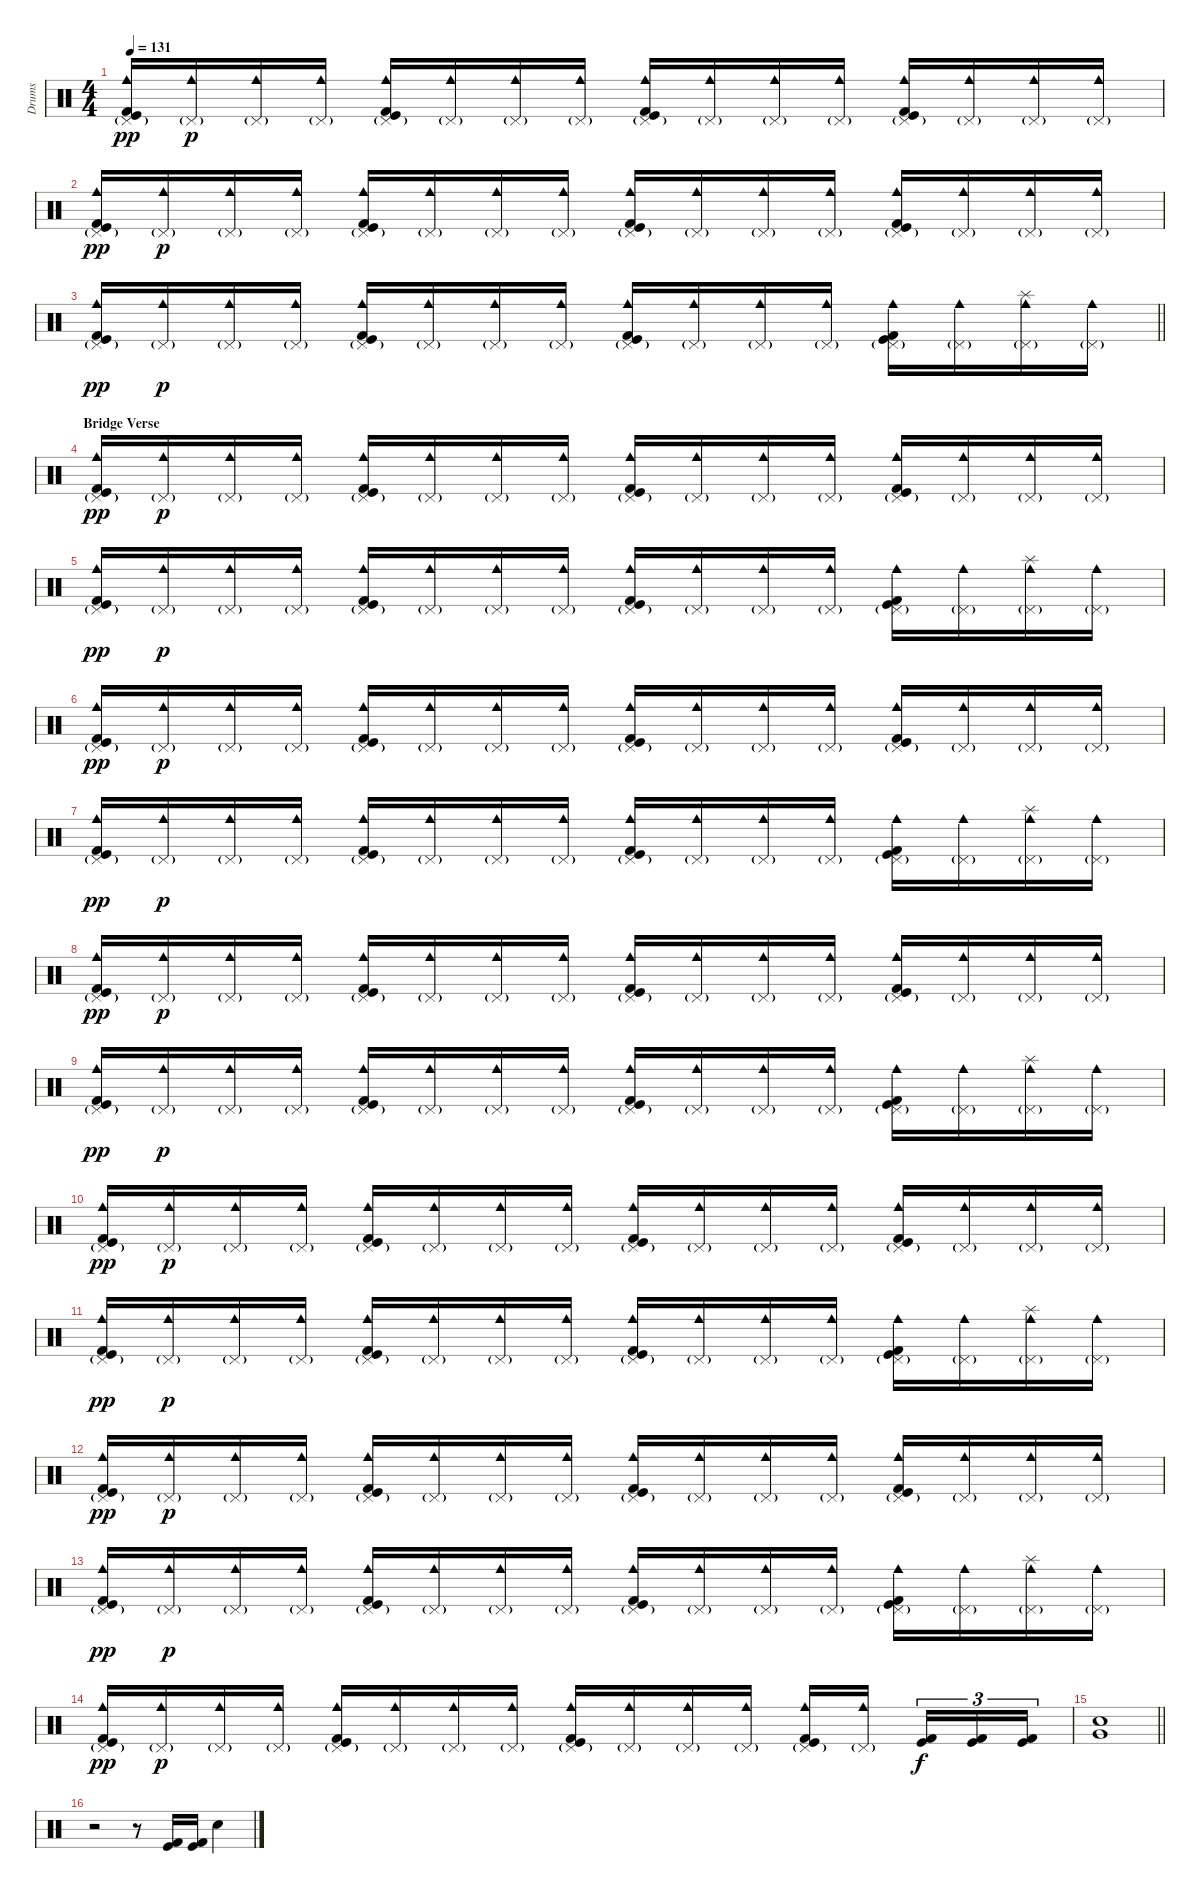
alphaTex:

\track ("Drums" "Drums") {instrument percussion}
\staff {score}
\articulation defaults
\ts (4 4)
\tempo 131
\clef neutral
\ks c
("Pedal Hi-Hat (hit)"{g} "Kick (hit)" "Kick (hit) 2" "Cowbell medium (hit)").16{dy pp} ("Pedal Hi-Hat (hit)"{g} "Cowbell medium (hit)").16{dy p} ("Pedal Hi-Hat (hit)"{g} "Cowbell medium (hit)").16 ("Pedal Hi-Hat (hit)"{g} "Cowbell medium (hit)").16 ("Pedal Hi-Hat (hit)"{g} "Kick (hit)" "Kick (hit) 2" "Cowbell medium (hit)").16 ("Pedal Hi-Hat (hit)"{g} "Cowbell medium (hit)").16 ("Pedal Hi-Hat (hit)"{g} "Cowbell medium (hit)").16 ("Pedal Hi-Hat (hit)"{g} "Cowbell medium (hit)").16 ("Pedal Hi-Hat (hit)"{g} "Kick (hit)" "Kick (hit) 2" "Cowbell medium (hit)").16 ("Pedal Hi-Hat (hit)"{g} "Cowbell medium (hit)").16 ("Pedal Hi-Hat (hit)"{g} "Cowbell medium (hit)").16 ("Pedal Hi-Hat (hit)"{g} "Cowbell medium (hit)").16 ("Pedal Hi-Hat (hit)"{g} "Kick (hit)" "Kick (hit) 2" "Cowbell medium (hit)").16 ("Pedal Hi-Hat (hit)"{g} "Cowbell medium (hit)").16 ("Pedal Hi-Hat (hit)"{g} "Cowbell medium (hit)").16 ("Pedal Hi-Hat (hit)"{g} "Cowbell medium (hit)").16 |
("Pedal Hi-Hat (hit)"{g} "Kick (hit)" "Kick (hit) 2" "Cowbell medium (hit)").16{dy pp} ("Pedal Hi-Hat (hit)"{g} "Cowbell medium (hit)").16{dy p} ("Pedal Hi-Hat (hit)"{g} "Cowbell medium (hit)").16 ("Pedal Hi-Hat (hit)"{g} "Cowbell medium (hit)").16 ("Pedal Hi-Hat (hit)"{g} "Kick (hit)" "Kick (hit) 2" "Cowbell medium (hit)").16 ("Pedal Hi-Hat (hit)"{g} "Cowbell medium (hit)").16 ("Pedal Hi-Hat (hit)"{g} "Cowbell medium (hit)").16 ("Pedal Hi-Hat (hit)"{g} "Cowbell medium (hit)").16 ("Pedal Hi-Hat (hit)"{g} "Kick (hit)" "Kick (hit) 2" "Cowbell medium (hit)").16 ("Pedal Hi-Hat (hit)"{g} "Cowbell medium (hit)").16 ("Pedal Hi-Hat (hit)"{g} "Cowbell medium (hit)").16 ("Pedal Hi-Hat (hit)"{g} "Cowbell medium (hit)").16 ("Pedal Hi-Hat (hit)"{g} "Kick (hit)" "Kick (hit) 2" "Cowbell medium (hit)").16 ("Pedal Hi-Hat (hit)"{g} "Cowbell medium (hit)").16 ("Pedal Hi-Hat (hit)"{g} "Cowbell medium (hit)").16 ("Pedal Hi-Hat (hit)"{g} "Cowbell medium (hit)").16 |
\barLineRight lightlight
("Pedal Hi-Hat (hit)"{g} "Kick (hit)" "Kick (hit) 2" "Cowbell medium (hit)").16{dy pp} ("Pedal Hi-Hat (hit)"{g} "Cowbell medium (hit)").16{dy p} ("Pedal Hi-Hat (hit)"{g} "Cowbell medium (hit)").16 ("Pedal Hi-Hat (hit)"{g} "Cowbell medium (hit)").16 ("Pedal Hi-Hat (hit)"{g} "Kick (hit)" "Kick (hit) 2" "Cowbell medium (hit)").16 ("Pedal Hi-Hat (hit)"{g} "Cowbell medium (hit)").16 ("Pedal Hi-Hat (hit)"{g} "Cowbell medium (hit)").16 ("Pedal Hi-Hat (hit)"{g} "Cowbell medium (hit)").16 ("Pedal Hi-Hat (hit)"{g} "Kick (hit)" "Kick (hit) 2" "Cowbell medium (hit)").16 ("Pedal Hi-Hat (hit)"{g} "Cowbell medium (hit)").16 ("Pedal Hi-Hat (hit)"{g} "Cowbell medium (hit)").16 ("Pedal Hi-Hat (hit)"{g} "Cowbell medium (hit)").16 ("Pedal Hi-Hat (hit)"{g} "Kick (hit)" "Kick (hit) 2" "Cowbell medium (hit)").16 ("Pedal Hi-Hat (hit)"{g} "Cowbell medium (hit)").16 ("Splash (hit)" "Pedal Hi-Hat (hit)"{g} "Cowbell medium (hit)").16 ("Pedal Hi-Hat (hit)"{g} "Cowbell medium (hit)").16 |
\section ("" "Bridge Verse")
("Pedal Hi-Hat (hit)"{g} "Kick (hit)" "Kick (hit) 2" "Cowbell medium (hit)").16{dy pp} ("Pedal Hi-Hat (hit)"{g} "Cowbell medium (hit)").16{dy p} ("Pedal Hi-Hat (hit)"{g} "Cowbell medium (hit)").16 ("Pedal Hi-Hat (hit)"{g} "Cowbell medium (hit)").16 ("Pedal Hi-Hat (hit)"{g} "Kick (hit)" "Kick (hit) 2" "Cowbell medium (hit)").16 ("Pedal Hi-Hat (hit)"{g} "Cowbell medium (hit)").16 ("Pedal Hi-Hat (hit)"{g} "Cowbell medium (hit)").16 ("Pedal Hi-Hat (hit)"{g} "Cowbell medium (hit)").16 ("Pedal Hi-Hat (hit)"{g} "Kick (hit)" "Kick (hit) 2" "Cowbell medium (hit)").16 ("Pedal Hi-Hat (hit)"{g} "Cowbell medium (hit)").16 ("Pedal Hi-Hat (hit)"{g} "Cowbell medium (hit)").16 ("Pedal Hi-Hat (hit)"{g} "Cowbell medium (hit)").16 ("Pedal Hi-Hat (hit)"{g} "Kick (hit)" "Kick (hit) 2" "Cowbell medium (hit)").16 ("Pedal Hi-Hat (hit)"{g} "Cowbell medium (hit)").16 ("Pedal Hi-Hat (hit)"{g} "Cowbell medium (hit)").16 ("Pedal Hi-Hat (hit)"{g} "Cowbell medium (hit)").16 |
("Pedal Hi-Hat (hit)"{g} "Kick (hit)" "Kick (hit) 2" "Cowbell medium (hit)").16{dy pp} ("Pedal Hi-Hat (hit)"{g} "Cowbell medium (hit)").16{dy p} ("Pedal Hi-Hat (hit)"{g} "Cowbell medium (hit)").16 ("Pedal Hi-Hat (hit)"{g} "Cowbell medium (hit)").16 ("Pedal Hi-Hat (hit)"{g} "Kick (hit)" "Kick (hit) 2" "Cowbell medium (hit)").16 ("Pedal Hi-Hat (hit)"{g} "Cowbell medium (hit)").16 ("Pedal Hi-Hat (hit)"{g} "Cowbell medium (hit)").16 ("Pedal Hi-Hat (hit)"{g} "Cowbell medium (hit)").16 ("Pedal Hi-Hat (hit)"{g} "Kick (hit)" "Kick (hit) 2" "Cowbell medium (hit)").16 ("Pedal Hi-Hat (hit)"{g} "Cowbell medium (hit)").16 ("Pedal Hi-Hat (hit)"{g} "Cowbell medium (hit)").16 ("Pedal Hi-Hat (hit)"{g} "Cowbell medium (hit)").16 ("Pedal Hi-Hat (hit)"{g} "Kick (hit)" "Kick (hit) 2" "Cowbell medium (hit)").16 ("Pedal Hi-Hat (hit)"{g} "Cowbell medium (hit)").16 ("Splash (hit)" "Pedal Hi-Hat (hit)"{g} "Cowbell medium (hit)").16 ("Pedal Hi-Hat (hit)"{g} "Cowbell medium (hit)").16 |
("Pedal Hi-Hat (hit)"{g} "Kick (hit)" "Kick (hit) 2" "Cowbell medium (hit)").16{dy pp} ("Pedal Hi-Hat (hit)"{g} "Cowbell medium (hit)").16{dy p} ("Pedal Hi-Hat (hit)"{g} "Cowbell medium (hit)").16 ("Pedal Hi-Hat (hit)"{g} "Cowbell medium (hit)").16 ("Pedal Hi-Hat (hit)"{g} "Kick (hit)" "Kick (hit) 2" "Cowbell medium (hit)").16 ("Pedal Hi-Hat (hit)"{g} "Cowbell medium (hit)").16 ("Pedal Hi-Hat (hit)"{g} "Cowbell medium (hit)").16 ("Pedal Hi-Hat (hit)"{g} "Cowbell medium (hit)").16 ("Pedal Hi-Hat (hit)"{g} "Kick (hit)" "Kick (hit) 2" "Cowbell medium (hit)").16 ("Pedal Hi-Hat (hit)"{g} "Cowbell medium (hit)").16 ("Pedal Hi-Hat (hit)"{g} "Cowbell medium (hit)").16 ("Pedal Hi-Hat (hit)"{g} "Cowbell medium (hit)").16 ("Pedal Hi-Hat (hit)"{g} "Kick (hit)" "Kick (hit) 2" "Cowbell medium (hit)").16 ("Pedal Hi-Hat (hit)"{g} "Cowbell medium (hit)").16 ("Pedal Hi-Hat (hit)"{g} "Cowbell medium (hit)").16 ("Pedal Hi-Hat (hit)"{g} "Cowbell medium (hit)").16 |
("Pedal Hi-Hat (hit)"{g} "Kick (hit)" "Kick (hit) 2" "Cowbell medium (hit)").16{dy pp} ("Pedal Hi-Hat (hit)"{g} "Cowbell medium (hit)").16{dy p} ("Pedal Hi-Hat (hit)"{g} "Cowbell medium (hit)").16 ("Pedal Hi-Hat (hit)"{g} "Cowbell medium (hit)").16 ("Pedal Hi-Hat (hit)"{g} "Kick (hit)" "Kick (hit) 2" "Cowbell medium (hit)").16 ("Pedal Hi-Hat (hit)"{g} "Cowbell medium (hit)").16 ("Pedal Hi-Hat (hit)"{g} "Cowbell medium (hit)").16 ("Pedal Hi-Hat (hit)"{g} "Cowbell medium (hit)").16 ("Pedal Hi-Hat (hit)"{g} "Kick (hit)" "Kick (hit) 2" "Cowbell medium (hit)").16 ("Pedal Hi-Hat (hit)"{g} "Cowbell medium (hit)").16 ("Pedal Hi-Hat (hit)"{g} "Cowbell medium (hit)").16 ("Pedal Hi-Hat (hit)"{g} "Cowbell medium (hit)").16 ("Pedal Hi-Hat (hit)"{g} "Kick (hit)" "Kick (hit) 2" "Cowbell medium (hit)").16 ("Pedal Hi-Hat (hit)"{g} "Cowbell medium (hit)").16 ("Splash (hit)" "Pedal Hi-Hat (hit)"{g} "Cowbell medium (hit)").16 ("Pedal Hi-Hat (hit)"{g} "Cowbell medium (hit)").16 |
("Pedal Hi-Hat (hit)"{g} "Kick (hit)" "Kick (hit) 2" "Cowbell medium (hit)").16{dy pp} ("Pedal Hi-Hat (hit)"{g} "Cowbell medium (hit)").16{dy p} ("Pedal Hi-Hat (hit)"{g} "Cowbell medium (hit)").16 ("Pedal Hi-Hat (hit)"{g} "Cowbell medium (hit)").16 ("Pedal Hi-Hat (hit)"{g} "Kick (hit)" "Kick (hit) 2" "Cowbell medium (hit)").16 ("Pedal Hi-Hat (hit)"{g} "Cowbell medium (hit)").16 ("Pedal Hi-Hat (hit)"{g} "Cowbell medium (hit)").16 ("Pedal Hi-Hat (hit)"{g} "Cowbell medium (hit)").16 ("Pedal Hi-Hat (hit)"{g} "Kick (hit)" "Kick (hit) 2" "Cowbell medium (hit)").16 ("Pedal Hi-Hat (hit)"{g} "Cowbell medium (hit)").16 ("Pedal Hi-Hat (hit)"{g} "Cowbell medium (hit)").16 ("Pedal Hi-Hat (hit)"{g} "Cowbell medium (hit)").16 ("Pedal Hi-Hat (hit)"{g} "Kick (hit)" "Kick (hit) 2" "Cowbell medium (hit)").16 ("Pedal Hi-Hat (hit)"{g} "Cowbell medium (hit)").16 ("Pedal Hi-Hat (hit)"{g} "Cowbell medium (hit)").16 ("Pedal Hi-Hat (hit)"{g} "Cowbell medium (hit)").16 |
("Pedal Hi-Hat (hit)"{g} "Kick (hit)" "Kick (hit) 2" "Cowbell medium (hit)").16{dy pp} ("Pedal Hi-Hat (hit)"{g} "Cowbell medium (hit)").16{dy p} ("Pedal Hi-Hat (hit)"{g} "Cowbell medium (hit)").16 ("Pedal Hi-Hat (hit)"{g} "Cowbell medium (hit)").16 ("Pedal Hi-Hat (hit)"{g} "Kick (hit)" "Kick (hit) 2" "Cowbell medium (hit)").16 ("Pedal Hi-Hat (hit)"{g} "Cowbell medium (hit)").16 ("Pedal Hi-Hat (hit)"{g} "Cowbell medium (hit)").16 ("Pedal Hi-Hat (hit)"{g} "Cowbell medium (hit)").16 ("Pedal Hi-Hat (hit)"{g} "Kick (hit)" "Kick (hit) 2" "Cowbell medium (hit)").16 ("Pedal Hi-Hat (hit)"{g} "Cowbell medium (hit)").16 ("Pedal Hi-Hat (hit)"{g} "Cowbell medium (hit)").16 ("Pedal Hi-Hat (hit)"{g} "Cowbell medium (hit)").16 ("Pedal Hi-Hat (hit)"{g} "Kick (hit)" "Kick (hit) 2" "Cowbell medium (hit)").16 ("Pedal Hi-Hat (hit)"{g} "Cowbell medium (hit)").16 ("Splash (hit)" "Pedal Hi-Hat (hit)"{g} "Cowbell medium (hit)").16 ("Pedal Hi-Hat (hit)"{g} "Cowbell medium (hit)").16 |
("Pedal Hi-Hat (hit)"{g} "Kick (hit)" "Kick (hit) 2" "Cowbell medium (hit)").16{dy pp} ("Pedal Hi-Hat (hit)"{g} "Cowbell medium (hit)").16{dy p} ("Pedal Hi-Hat (hit)"{g} "Cowbell medium (hit)").16 ("Pedal Hi-Hat (hit)"{g} "Cowbell medium (hit)").16 ("Pedal Hi-Hat (hit)"{g} "Kick (hit)" "Kick (hit) 2" "Cowbell medium (hit)").16 ("Pedal Hi-Hat (hit)"{g} "Cowbell medium (hit)").16 ("Pedal Hi-Hat (hit)"{g} "Cowbell medium (hit)").16 ("Pedal Hi-Hat (hit)"{g} "Cowbell medium (hit)").16 ("Pedal Hi-Hat (hit)"{g} "Kick (hit)" "Kick (hit) 2" "Cowbell medium (hit)").16 ("Pedal Hi-Hat (hit)"{g} "Cowbell medium (hit)").16 ("Pedal Hi-Hat (hit)"{g} "Cowbell medium (hit)").16 ("Pedal Hi-Hat (hit)"{g} "Cowbell medium (hit)").16 ("Pedal Hi-Hat (hit)"{g} "Kick (hit)" "Kick (hit) 2" "Cowbell medium (hit)").16 ("Pedal Hi-Hat (hit)"{g} "Cowbell medium (hit)").16 ("Pedal Hi-Hat (hit)"{g} "Cowbell medium (hit)").16 ("Pedal Hi-Hat (hit)"{g} "Cowbell medium (hit)").16 |
("Pedal Hi-Hat (hit)"{g} "Kick (hit)" "Kick (hit) 2" "Cowbell medium (hit)").16{dy pp} ("Pedal Hi-Hat (hit)"{g} "Cowbell medium (hit)").16{dy p} ("Pedal Hi-Hat (hit)"{g} "Cowbell medium (hit)").16 ("Pedal Hi-Hat (hit)"{g} "Cowbell medium (hit)").16 ("Pedal Hi-Hat (hit)"{g} "Kick (hit)" "Kick (hit) 2" "Cowbell medium (hit)").16 ("Pedal Hi-Hat (hit)"{g} "Cowbell medium (hit)").16 ("Pedal Hi-Hat (hit)"{g} "Cowbell medium (hit)").16 ("Pedal Hi-Hat (hit)"{g} "Cowbell medium (hit)").16 ("Pedal Hi-Hat (hit)"{g} "Kick (hit)" "Kick (hit) 2" "Cowbell medium (hit)").16 ("Pedal Hi-Hat (hit)"{g} "Cowbell medium (hit)").16 ("Pedal Hi-Hat (hit)"{g} "Cowbell medium (hit)").16 ("Pedal Hi-Hat (hit)"{g} "Cowbell medium (hit)").16 ("Pedal Hi-Hat (hit)"{g} "Kick (hit)" "Kick (hit) 2" "Cowbell medium (hit)").16 ("Pedal Hi-Hat (hit)"{g} "Cowbell medium (hit)").16 ("Splash (hit)" "Pedal Hi-Hat (hit)"{g} "Cowbell medium (hit)").16 ("Pedal Hi-Hat (hit)"{g} "Cowbell medium (hit)").16 |
("Pedal Hi-Hat (hit)"{g} "Kick (hit)" "Kick (hit) 2" "Cowbell medium (hit)").16{dy pp} ("Pedal Hi-Hat (hit)"{g} "Cowbell medium (hit)").16{dy p} ("Pedal Hi-Hat (hit)"{g} "Cowbell medium (hit)").16 ("Pedal Hi-Hat (hit)"{g} "Cowbell medium (hit)").16 ("Pedal Hi-Hat (hit)"{g} "Kick (hit)" "Kick (hit) 2" "Cowbell medium (hit)").16 ("Pedal Hi-Hat (hit)"{g} "Cowbell medium (hit)").16 ("Pedal Hi-Hat (hit)"{g} "Cowbell medium (hit)").16 ("Pedal Hi-Hat (hit)"{g} "Cowbell medium (hit)").16 ("Pedal Hi-Hat (hit)"{g} "Kick (hit)" "Kick (hit) 2" "Cowbell medium (hit)").16 ("Pedal Hi-Hat (hit)"{g} "Cowbell medium (hit)").16 ("Pedal Hi-Hat (hit)"{g} "Cowbell medium (hit)").16 ("Pedal Hi-Hat (hit)"{g} "Cowbell medium (hit)").16 ("Pedal Hi-Hat (hit)"{g} "Kick (hit)" "Kick (hit) 2" "Cowbell medium (hit)").16 ("Pedal Hi-Hat (hit)"{g} "Cowbell medium (hit)").16 ("Pedal Hi-Hat (hit)"{g} "Cowbell medium (hit)").16 ("Pedal Hi-Hat (hit)"{g} "Cowbell medium (hit)").16 |
("Pedal Hi-Hat (hit)"{g} "Kick (hit)" "Kick (hit) 2" "Cowbell medium (hit)").16{dy pp} ("Pedal Hi-Hat (hit)"{g} "Cowbell medium (hit)").16{dy p} ("Pedal Hi-Hat (hit)"{g} "Cowbell medium (hit)").16 ("Pedal Hi-Hat (hit)"{g} "Cowbell medium (hit)").16 ("Pedal Hi-Hat (hit)"{g} "Kick (hit)" "Kick (hit) 2" "Cowbell medium (hit)").16 ("Pedal Hi-Hat (hit)"{g} "Cowbell medium (hit)").16 ("Pedal Hi-Hat (hit)"{g} "Cowbell medium (hit)").16 ("Pedal Hi-Hat (hit)"{g} "Cowbell medium (hit)").16 ("Pedal Hi-Hat (hit)"{g} "Kick (hit)" "Kick (hit) 2" "Cowbell medium (hit)").16 ("Pedal Hi-Hat (hit)"{g} "Cowbell medium (hit)").16 ("Pedal Hi-Hat (hit)"{g} "Cowbell medium (hit)").16 ("Pedal Hi-Hat (hit)"{g} "Cowbell medium (hit)").16 ("Pedal Hi-Hat (hit)"{g} "Kick (hit)" "Kick (hit) 2" "Cowbell medium (hit)").16 ("Pedal Hi-Hat (hit)"{g} "Cowbell medium (hit)").16 ("Splash (hit)" "Pedal Hi-Hat (hit)"{g} "Cowbell medium (hit)").16 ("Pedal Hi-Hat (hit)"{g} "Cowbell medium (hit)").16 |
("Pedal Hi-Hat (hit)"{g} "Kick (hit)" "Kick (hit) 2" "Cowbell medium (hit)").16{dy pp} ("Pedal Hi-Hat (hit)"{g} "Cowbell medium (hit)").16{dy p} ("Pedal Hi-Hat (hit)"{g} "Cowbell medium (hit)").16 ("Pedal Hi-Hat (hit)"{g} "Cowbell medium (hit)").16 ("Pedal Hi-Hat (hit)"{g} "Kick (hit)" "Kick (hit) 2" "Cowbell medium (hit)").16 ("Pedal Hi-Hat (hit)"{g} "Cowbell medium (hit)").16 ("Pedal Hi-Hat (hit)"{g} "Cowbell medium (hit)").16 ("Pedal Hi-Hat (hit)"{g} "Cowbell medium (hit)").16 ("Pedal Hi-Hat (hit)"{g} "Kick (hit)" "Kick (hit) 2" "Cowbell medium (hit)").16 ("Pedal Hi-Hat (hit)"{g} "Cowbell medium (hit)").16 ("Pedal Hi-Hat (hit)"{g} "Cowbell medium (hit)").16 ("Pedal Hi-Hat (hit)"{g} "Cowbell medium (hit)").16 ("Pedal Hi-Hat (hit)"{g} "Kick (hit)" "Kick (hit) 2" "Cowbell medium (hit)").16 ("Pedal Hi-Hat (hit)"{g} "Cowbell medium (hit)").16{beam splitsecondary} ("Kick (hit)" "Kick (hit) 2").16{tu (3 2) dy f} ("Kick (hit)" "Kick (hit) 2").16{tu (3 2)} ("Kick (hit)" "Kick (hit) 2").16{tu (3 2)} |
\barLineRight lightlight
("Electric Snare (hit)" "Very Low Tom (hit)").1 |
\section ("" "")
r.2 r.8 ("Kick (hit)" "Kick (hit) 2").16 ("Kick (hit)" "Kick (hit) 2").16 "Electric Snare (hit)".4
